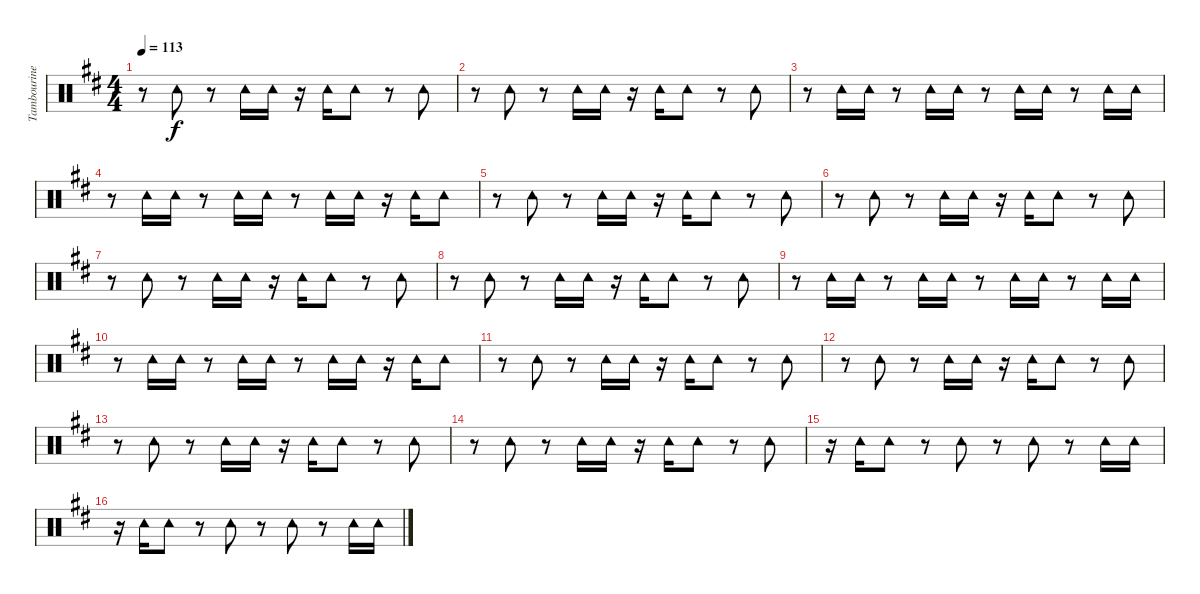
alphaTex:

\track ("Tambourine" "Tambourine") {instrument percussion}
\staff {score}
\articulation defaults
\ts (4 4)
\tempo 113
\clef neutral
\ks d
r.8{dy f} "Tambourine (hit)".8 r.8 "Tambourine (hit)".16 "Tambourine (hit)".16 r.16 "Tambourine (hit)".16 "Tambourine (hit)".8 r.8 "Tambourine (hit)".8 |
r.8 "Tambourine (hit)".8 r.8 "Tambourine (hit)".16 "Tambourine (hit)".16 r.16 "Tambourine (hit)".16 "Tambourine (hit)".8 r.8 "Tambourine (hit)".8 |
r.8 "Tambourine (hit)".16 "Tambourine (hit)".16 r.8 "Tambourine (hit)".16 "Tambourine (hit)".16 r.8 "Tambourine (hit)".16 "Tambourine (hit)".16 r.8 "Tambourine (hit)".16 "Tambourine (hit)".16 |
r.8 "Tambourine (hit)".16 "Tambourine (hit)".16 r.8 "Tambourine (hit)".16 "Tambourine (hit)".16 r.8 "Tambourine (hit)".16 "Tambourine (hit)".16 r.16 "Tambourine (hit)".16 "Tambourine (hit)".8 |
r.8 "Tambourine (hit)".8 r.8 "Tambourine (hit)".16 "Tambourine (hit)".16 r.16 "Tambourine (hit)".16 "Tambourine (hit)".8 r.8 "Tambourine (hit)".8 |
r.8 "Tambourine (hit)".8 r.8 "Tambourine (hit)".16 "Tambourine (hit)".16 r.16 "Tambourine (hit)".16 "Tambourine (hit)".8 r.8 "Tambourine (hit)".8 |
r.8 "Tambourine (hit)".8 r.8 "Tambourine (hit)".16 "Tambourine (hit)".16 r.16 "Tambourine (hit)".16 "Tambourine (hit)".8 r.8 "Tambourine (hit)".8 |
r.8 "Tambourine (hit)".8 r.8 "Tambourine (hit)".16 "Tambourine (hit)".16 r.16 "Tambourine (hit)".16 "Tambourine (hit)".8 r.8 "Tambourine (hit)".8 |
r.8 "Tambourine (hit)".16 "Tambourine (hit)".16 r.8 "Tambourine (hit)".16 "Tambourine (hit)".16 r.8 "Tambourine (hit)".16 "Tambourine (hit)".16 r.8 "Tambourine (hit)".16 "Tambourine (hit)".16 |
r.8 "Tambourine (hit)".16 "Tambourine (hit)".16 r.8 "Tambourine (hit)".16 "Tambourine (hit)".16 r.8 "Tambourine (hit)".16 "Tambourine (hit)".16 r.16 "Tambourine (hit)".16 "Tambourine (hit)".8 |
r.8 "Tambourine (hit)".8 r.8 "Tambourine (hit)".16 "Tambourine (hit)".16 r.16 "Tambourine (hit)".16 "Tambourine (hit)".8 r.8 "Tambourine (hit)".8 |
r.8 "Tambourine (hit)".8 r.8 "Tambourine (hit)".16 "Tambourine (hit)".16 r.16 "Tambourine (hit)".16 "Tambourine (hit)".8 r.8 "Tambourine (hit)".8 |
r.8 "Tambourine (hit)".8 r.8 "Tambourine (hit)".16 "Tambourine (hit)".16 r.16 "Tambourine (hit)".16 "Tambourine (hit)".8 r.8 "Tambourine (hit)".8 |
r.8 "Tambourine (hit)".8 r.8 "Tambourine (hit)".16 "Tambourine (hit)".16 r.16 "Tambourine (hit)".16 "Tambourine (hit)".8 r.8 "Tambourine (hit)".8 |
r.16 "Tambourine (hit)".16 "Tambourine (hit)".8 r.8 "Tambourine (hit)".8 r.8 "Tambourine (hit)".8 r.8 "Tambourine (hit)".16 "Tambourine (hit)".16 |
r.16 "Tambourine (hit)".16 "Tambourine (hit)".8 r.8 "Tambourine (hit)".8 r.8 "Tambourine (hit)".8 r.8 "Tambourine (hit)".16 "Tambourine (hit)".16
